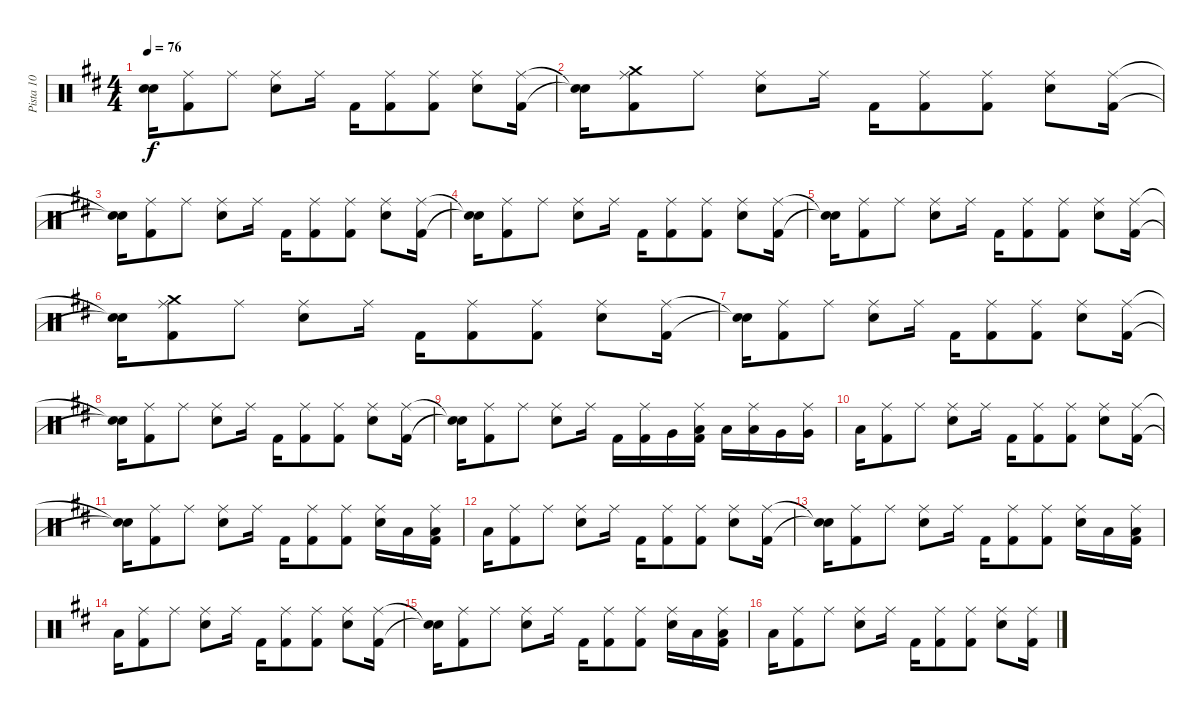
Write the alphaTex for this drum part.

\track ("Pista 10" "Pista 10") {instrument percussion}
\staff {score}
\articulation defaults
\ts (4 4)
\tempo 76
\clef neutral
\ks d
("Snare (hit)"{t} "Snare (hit)"{t}).16{dy f} ("Kick (hit) 2" "Ride (middle)").8 "Ride (middle)".8 ("Snare (hit) 2" "Ride (middle)").8 "Ride (middle)".16 "Kick (hit) 2".16 ("Kick (hit) 2" "Ride (middle)").8 ("Kick (hit) 2" "Ride (middle)").8 ("Snare (hit) 2" "Ride (middle)").8 ("Kick (hit) 2" "Ride (middle)").16 |
("Snare (hit)"{t} "Snare (hit)"{t}).16 ("Kick (hit) 2" "Crash medium (hit)" "Ride (middle)").8 "Ride (middle)".8 ("Snare (hit) 2" "Ride (middle)").8 "Ride (middle)".16 "Kick (hit) 2".16 ("Kick (hit) 2" "Ride (middle)").8 ("Kick (hit) 2" "Ride (middle)").8 ("Snare (hit) 2" "Ride (middle)").8 ("Kick (hit) 2" "Ride (middle)").16 |
("Snare (hit)"{t} "Snare (hit)"{t}).16 ("Kick (hit) 2" "Ride (middle)").8 "Ride (middle)".8 ("Snare (hit) 2" "Ride (middle)").8 "Ride (middle)".16 "Kick (hit) 2".16 ("Kick (hit) 2" "Ride (middle)").8 ("Kick (hit) 2" "Ride (middle)").8 ("Snare (hit) 2" "Ride (middle)").8 ("Kick (hit) 2" "Ride (middle)").16 |
("Snare (hit)"{t} "Snare (hit)"{t}).16 ("Kick (hit) 2" "Ride (middle)").8 "Ride (middle)".8 ("Snare (hit) 2" "Ride (middle)").8 "Ride (middle)".16 "Kick (hit) 2".16 ("Kick (hit) 2" "Ride (middle)").8 ("Kick (hit) 2" "Ride (middle)").8 ("Snare (hit) 2" "Ride (middle)").8 ("Kick (hit) 2" "Ride (middle)").16 |
("Snare (hit)"{t} "Snare (hit)"{t}).16 ("Kick (hit) 2" "Ride (middle)").8 "Ride (middle)".8 ("Snare (hit) 2" "Ride (middle)").8 "Ride (middle)".16 "Kick (hit) 2".16 ("Kick (hit) 2" "Ride (middle)").8 ("Kick (hit) 2" "Ride (middle)").8 ("Snare (hit) 2" "Ride (middle)").8 ("Kick (hit) 2" "Ride (middle)").16 |
("Snare (hit)"{t} "Snare (hit)"{t}).16 ("Kick (hit) 2" "Crash medium (hit)" "Ride (middle)").8 "Ride (middle)".8 ("Snare (hit) 2" "Ride (middle)").8 "Ride (middle)".16 "Kick (hit) 2".16 ("Kick (hit) 2" "Ride (middle)").8 ("Kick (hit) 2" "Ride (middle)").8 ("Snare (hit) 2" "Ride (middle)").8 ("Kick (hit) 2" "Ride (middle)").16 |
("Snare (hit)"{t} "Snare (hit)"{t}).16 ("Kick (hit) 2" "Ride (middle)").8 "Ride (middle)".8 ("Snare (hit) 2" "Ride (middle)").8 "Ride (middle)".16 "Kick (hit) 2".16 ("Kick (hit) 2" "Ride (middle)").8 ("Kick (hit) 2" "Ride (middle)").8 ("Snare (hit) 2" "Ride (middle)").8 ("Kick (hit) 2" "Ride (middle)").16 |
("Snare (hit)"{t} "Snare (hit)"{t}).16 ("Kick (hit) 2" "Ride (middle)").8 "Ride (middle)".8 ("Snare (hit) 2" "Ride (middle)").8 "Ride (middle)".16 "Kick (hit) 2".16 ("Kick (hit) 2" "Ride (middle)").8 ("Kick (hit) 2" "Ride (middle)").8 ("Snare (hit) 2" "Ride (middle)").8 ("Kick (hit) 2" "Ride (middle)").16 |
("Snare (hit)"{t} "Snare (hit)"{t}).16 ("Kick (hit) 2" "Ride (middle)").8 "Ride (middle)".8 ("Snare (hit) 2" "Ride (middle)").8 "Ride (middle)".16 "Kick (hit) 2".16 ("Kick (hit) 2" "Ride (middle)").16 "Very Low Tom (hit)".16 ("Kick (hit) 2" "Ride (middle)" "Low Tom (hit)").16 "Low Tom (hit)".16 ("Ride (middle)" "Low Tom (hit)").16 "Very Low Tom (hit)".16 ("Very Low Tom (hit)" "Ride (middle)").16 |
"Low Floor Tom (hit)".16 ("Kick (hit) 2" "Ride (middle)").8 "Ride (middle)".8 ("Snare (hit) 2" "Ride (middle)").8 "Ride (middle)".16 "Kick (hit) 2".16 ("Kick (hit) 2" "Ride (middle)").8 ("Kick (hit) 2" "Ride (middle)").8 ("Snare (hit) 2" "Ride (middle)").8 ("Kick (hit) 2" "Ride (middle)").16 |
("Snare (hit)"{t} "Snare (hit)"{t}).16 ("Kick (hit) 2" "Ride (middle)").8 "Ride (middle)".8 ("Snare (hit) 2" "Ride (middle)").8 "Ride (middle)".16 "Kick (hit) 2".16 ("Kick (hit) 2" "Ride (middle)").8 ("Kick (hit) 2" "Ride (middle)").8 ("Snare (hit) 2" "Ride (middle)").16 "Low Tom (hit)".16 ("Kick (hit) 2" "Ride (middle)" "Low Tom (hit)").16 |
"Low Floor Tom (hit)".16 ("Kick (hit) 2" "Ride (middle)").8 "Ride (middle)".8 ("Snare (hit) 2" "Ride (middle)").8 "Ride (middle)".16 "Kick (hit) 2".16 ("Kick (hit) 2" "Ride (middle)").8 ("Kick (hit) 2" "Ride (middle)").8 ("Snare (hit) 2" "Ride (middle)").8 ("Kick (hit) 2" "Ride (middle)").16 |
("Snare (hit)"{t} "Snare (hit)"{t}).16 ("Kick (hit) 2" "Ride (middle)").8 "Ride (middle)".8 ("Snare (hit) 2" "Ride (middle)").8 "Ride (middle)".16 "Kick (hit) 2".16 ("Kick (hit) 2" "Ride (middle)").8 ("Kick (hit) 2" "Ride (middle)").8 ("Snare (hit) 2" "Ride (middle)").16 "Low Tom (hit)".16 ("Kick (hit) 2" "Ride (middle)" "Low Tom (hit)").16 |
"Low Floor Tom (hit)".16 ("Kick (hit) 2" "Ride (middle)").8 "Ride (middle)".8 ("Snare (hit) 2" "Ride (middle)").8 "Ride (middle)".16 "Kick (hit) 2".16 ("Kick (hit) 2" "Ride (middle)").8 ("Kick (hit) 2" "Ride (middle)").8 ("Snare (hit) 2" "Ride (middle)").8 ("Kick (hit) 2" "Ride (middle)").16 |
("Snare (hit)"{t} "Snare (hit)"{t}).16 ("Kick (hit) 2" "Ride (middle)").8 "Ride (middle)".8 ("Snare (hit) 2" "Ride (middle)").8 "Ride (middle)".16 "Kick (hit) 2".16 ("Kick (hit) 2" "Ride (middle)").8 ("Kick (hit) 2" "Ride (middle)").8 ("Snare (hit) 2" "Ride (middle)").16 "Low Tom (hit)".16 ("Kick (hit) 2" "Ride (middle)" "Low Tom (hit)").16 |
"Low Floor Tom (hit)".16 ("Kick (hit) 2" "Ride (middle)").8 "Ride (middle)".8 ("Snare (hit) 2" "Ride (middle)").8 "Ride (middle)".16 "Kick (hit) 2".16 ("Kick (hit) 2" "Ride (middle)").8 ("Kick (hit) 2" "Ride (middle)").8 ("Snare (hit) 2" "Ride (middle)").8 ("Kick (hit) 2" "Ride (middle)").16
